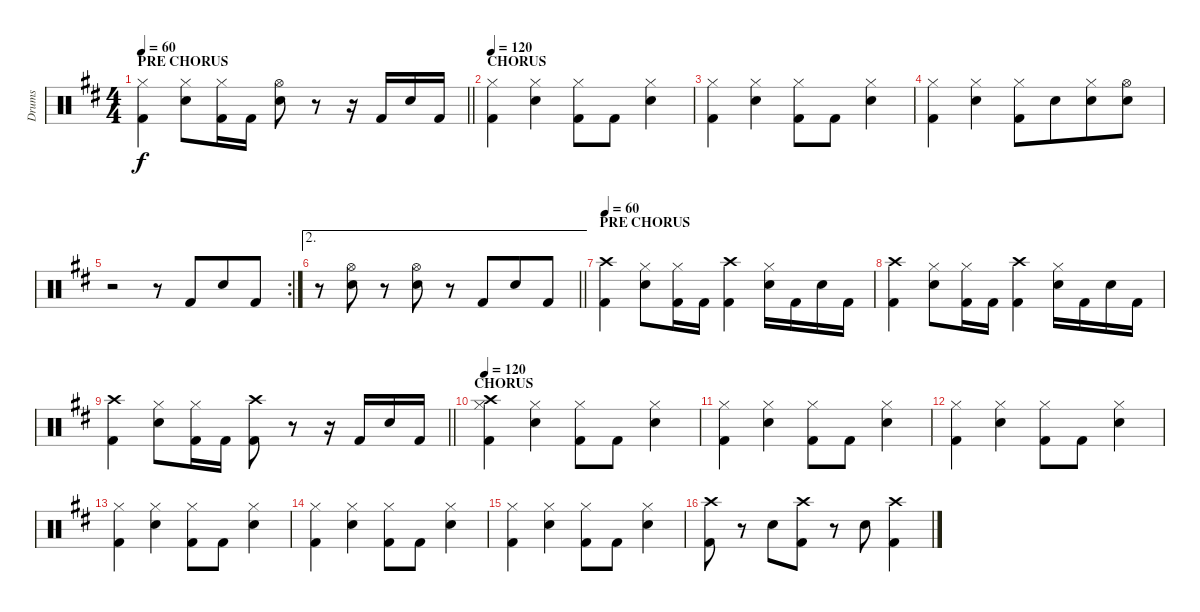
\track ("Drums" "Drums") {instrument percussion}
\staff {score}
\articulation defaults
\ts (4 4)
\section ("" "PRE CHORUS")
\tempo 60
\clef neutral
\barLineRight lightlight
\ks d
("Hi-Hat (closed)" "Kick (hit) 2").4{dy f} ("Hi-Hat (closed)" "Electric Snare (hit)").8 ("Hi-Hat (closed)" "Kick (hit) 2").16 "Kick (hit) 2".16 ("Hi-Hat (open)" "Electric Snare (hit)").8 r.8 r.16 "Kick (hit) 2".16{beam merge} "Electric Snare (hit)".16 "Kick (hit) 2".16 |
\section ("" "CHORUS")
\tempo 120
("Hi-Hat (closed)" "Kick (hit) 2").4 ("Hi-Hat (closed)" "Electric Snare (hit)").4 ("Hi-Hat (closed)" "Kick (hit) 2").8 "Kick (hit) 2".8 ("Hi-Hat (closed)" "Electric Snare (hit)").4 |
("Hi-Hat (closed)" "Kick (hit) 2").4 ("Hi-Hat (closed)" "Electric Snare (hit)").4 ("Hi-Hat (closed)" "Kick (hit) 2").8 "Kick (hit) 2".8 ("Hi-Hat (closed)" "Electric Snare (hit)").4 |
("Hi-Hat (closed)" "Kick (hit) 2").4 ("Hi-Hat (closed)" "Electric Snare (hit)").4 ("Hi-Hat (closed)" "Kick (hit) 2").8 "Electric Snare (hit)".8{beam merge} ("Hi-Hat (closed)" "Electric Snare (hit)").8 ("Hi-Hat (open)" "Electric Snare (hit)").8 |
\rc 2
r.2 r.8 "Kick (hit) 2".8{beam merge} "Electric Snare (hit)".8 "Kick (hit) 2".8 |
\ae 2
\barLineRight lightlight
r.8 ("Hi-Hat (open)" "Electric Snare (hit)").8 r.8 ("Hi-Hat (open)" "Electric Snare (hit)").8 r.8 "Kick (hit) 2".8{beam merge} "Electric Snare (hit)".8 "Kick (hit) 2".8 |
\section ("" "PRE CHORUS")
\tempo 60
("Crash high (hit)" "Kick (hit) 2").4 ("Hi-Hat (closed)" "Electric Snare (hit)").8 ("Hi-Hat (closed)" "Kick (hit) 2").16 "Kick (hit) 2".16 ("Crash high (hit)" "Kick (hit) 2").4 ("Hi-Hat (closed)" "Electric Snare (hit)").16 "Kick (hit) 2".16{beam merge} "Electric Snare (hit)".16 "Kick (hit) 2".16 |
("Crash high (hit)" "Kick (hit) 2").4 ("Hi-Hat (closed)" "Electric Snare (hit)").8 ("Hi-Hat (closed)" "Kick (hit) 2").16 "Kick (hit) 2".16 ("Crash high (hit)" "Kick (hit) 2").4 ("Hi-Hat (closed)" "Electric Snare (hit)").16 "Kick (hit) 2".16{beam merge} "Electric Snare (hit)".16 "Kick (hit) 2".16 |
\barLineRight lightlight
("Crash high (hit)" "Kick (hit) 2").4 ("Hi-Hat (closed)" "Electric Snare (hit)").8 ("Hi-Hat (closed)" "Kick (hit) 2").16 "Kick (hit) 2".16 ("Crash high (hit)" "Kick (hit) 2").8 r.8 r.16 "Kick (hit) 2".16{beam merge} "Electric Snare (hit)".16 "Kick (hit) 2".16 |
\section ("" "CHORUS")
\tempo 120
("Crash high (hit)" "Hi-Hat (closed)" "Kick (hit) 2").4 ("Hi-Hat (closed)" "Electric Snare (hit)").4 ("Hi-Hat (closed)" "Kick (hit) 2").8 "Kick (hit) 2".8 ("Hi-Hat (closed)" "Electric Snare (hit)").4 |
("Hi-Hat (closed)" "Kick (hit) 2").4 ("Hi-Hat (closed)" "Electric Snare (hit)").4 ("Hi-Hat (closed)" "Kick (hit) 2").8 "Kick (hit) 2".8 ("Hi-Hat (closed)" "Electric Snare (hit)").4 |
("Hi-Hat (closed)" "Kick (hit) 2").4 ("Hi-Hat (closed)" "Electric Snare (hit)").4 ("Hi-Hat (closed)" "Kick (hit) 2").8 "Kick (hit) 2".8 ("Hi-Hat (closed)" "Electric Snare (hit)").4 |
("Hi-Hat (closed)" "Kick (hit) 2").4 ("Hi-Hat (closed)" "Electric Snare (hit)").4 ("Hi-Hat (closed)" "Kick (hit) 2").8 "Kick (hit) 2".8 ("Hi-Hat (closed)" "Electric Snare (hit)").4 |
("Hi-Hat (closed)" "Kick (hit) 2").4 ("Hi-Hat (closed)" "Electric Snare (hit)").4 ("Hi-Hat (closed)" "Kick (hit) 2").8 "Kick (hit) 2".8 ("Hi-Hat (closed)" "Electric Snare (hit)").4 |
("Hi-Hat (closed)" "Kick (hit) 2").4 ("Hi-Hat (closed)" "Electric Snare (hit)").4 ("Hi-Hat (closed)" "Kick (hit) 2").8 "Kick (hit) 2".8 ("Hi-Hat (closed)" "Electric Snare (hit)").4 |
("Crash high (hit)" "Kick (hit) 2").8 r.8 "Electric Snare (hit)".8 ("Crash high (hit)" "Kick (hit) 2").8 r.8 "Electric Snare (hit)".8 ("Crash high (hit)" "Kick (hit) 2").4
